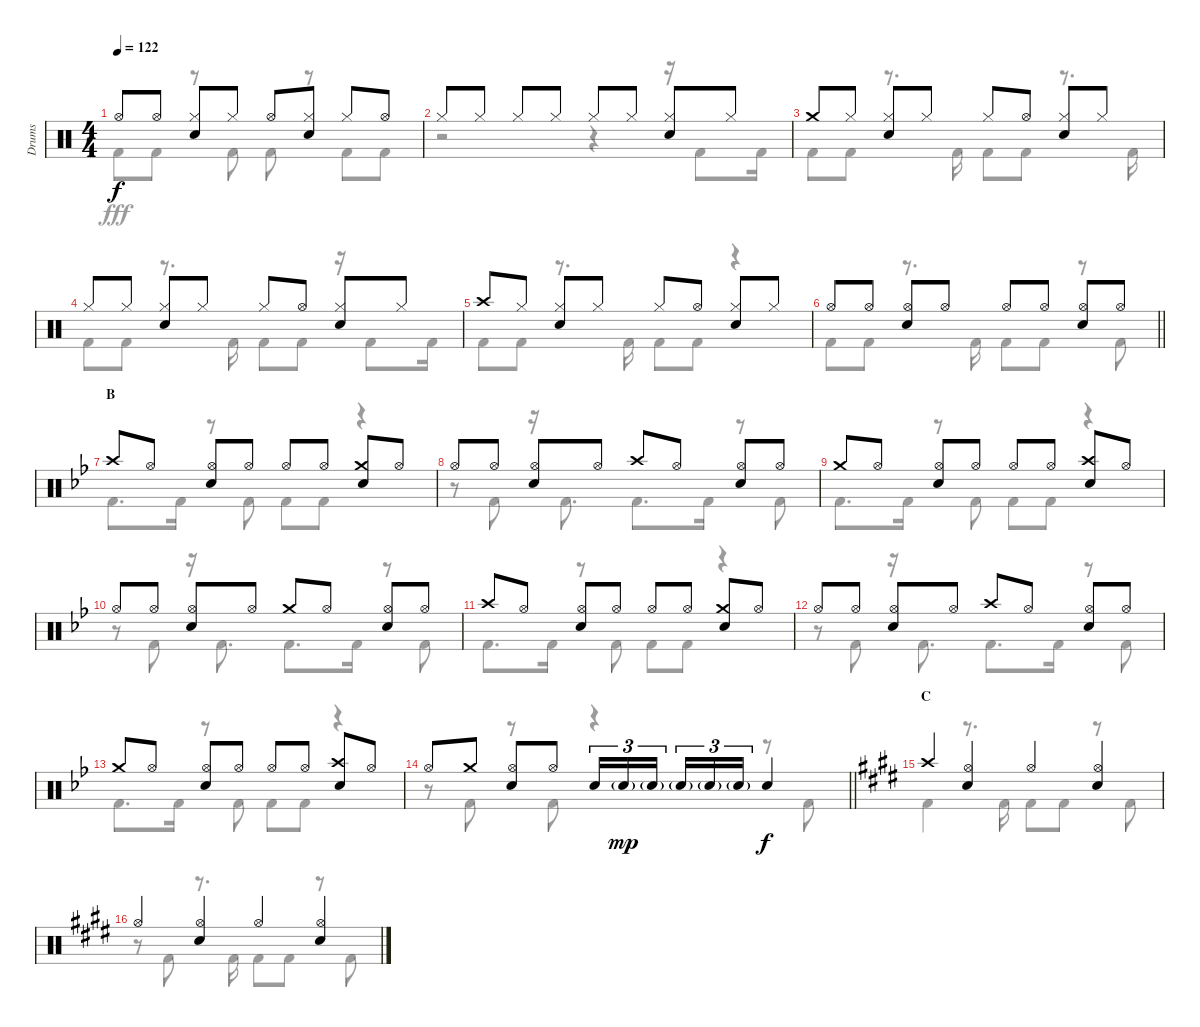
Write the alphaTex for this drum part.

\track ("Drums" "Drums") {instrument percussion}
\staff {score}
\articulation defaults
\voice
\ts (4 4)
\tempo 122
\clef neutral
\ks c "Hi-Hat (open)".8{dy f} "Hi-Hat (open)".8
("Hi-Hat (closed)" "Snare (hit) 2").8 "Hi-Hat (closed)".8 "Hi-Hat (open)".8 ("Hi-Hat (closed)" "Snare (hit) 2").8 "Hi-Hat (closed)".8 "Hi-Hat (open)".8 |
"Hi-Hat (closed)".8 "Hi-Hat (closed)".8 "Hi-Hat (closed)".8 "Hi-Hat (closed)".8 "Hi-Hat (closed)".8 "Hi-Hat (closed)".8 ("Hi-Hat (closed)" "Snare (hit) 2").8 "Hi-Hat (closed)".8 |
"Crash medium (hit)".8 "Hi-Hat (closed)".8 ("Hi-Hat (closed)" "Snare (hit) 2").8 "Hi-Hat (closed)".8 "Hi-Hat (closed)".8 "Hi-Hat (open)".8 ("Hi-Hat (closed)" "Snare (hit) 2").8 "Hi-Hat (closed)".8 |
"Hi-Hat (closed)".8 "Hi-Hat (closed)".8 ("Hi-Hat (closed)" "Snare (hit) 2").8 "Hi-Hat (closed)".8 "Hi-Hat (closed)".8 "Hi-Hat (open)".8 ("Hi-Hat (closed)" "Snare (hit) 2").8 "Hi-Hat (closed)".8 |
"Crash high (hit)".8 "Hi-Hat (closed)".8 ("Hi-Hat (closed)" "Snare (hit) 2").8 "Hi-Hat (closed)".8 "Hi-Hat (closed)".8 "Hi-Hat (open)".8 ("Hi-Hat (closed)" "Snare (hit) 2").8 "Hi-Hat (closed)".8 |
\barLineRight lightlight "Hi-Hat (open)".8 "Hi-Hat (open)".8
("Hi-Hat (open)" "Snare (hit) 2").8 "Hi-Hat (open)".8 "Hi-Hat (open)".8 "Hi-Hat (open)".8 ("Hi-Hat (open)" "Snare (hit) 2").8 "Hi-Hat (open)".8 |
\section ("" "B")
\ks bb "Crash high (hit)".8 "Hi-Hat (open)".8
("Hi-Hat (open)" "Snare (hit) 2").8 "Hi-Hat (open)".8 "Hi-Hat (open)".8 "Hi-Hat (open)".8 ("Crash medium (hit)" "Snare (hit) 2").8 "Hi-Hat (open)".8 |
"Hi-Hat (open)".8 "Hi-Hat (open)".8 ("Hi-Hat (open)" "Snare (hit) 2").8 "Hi-Hat (open)".8 "Crash high (hit)".8 "Hi-Hat (open)".8 ("Hi-Hat (open)" "Snare (hit) 2").8 "Hi-Hat (open)".8 |
"Crash medium (hit)".8 "Hi-Hat (open)".8 ("Hi-Hat (open)" "Snare (hit) 2").8 "Hi-Hat (open)".8 "Hi-Hat (open)".8 "Hi-Hat (open)".8 ("Crash high (hit)" "Snare (hit) 2").8 "Hi-Hat (open)".8 |
"Hi-Hat (open)".8 "Hi-Hat (open)".8 ("Hi-Hat (open)" "Snare (hit) 2").8 "Hi-Hat (open)".8 "Crash medium (hit)".8 "Hi-Hat (open)".8 ("Hi-Hat (open)" "Snare (hit) 2").8 "Hi-Hat (open)".8 |
"Crash high (hit)".8 "Hi-Hat (open)".8 ("Hi-Hat (open)" "Snare (hit) 2").8 "Hi-Hat (open)".8 "Hi-Hat (open)".8 "Hi-Hat (open)".8 ("Crash medium (hit)" "Snare (hit) 2").8 "Hi-Hat (open)".8 |
"Hi-Hat (open)".8 "Hi-Hat (open)".8 ("Hi-Hat (open)" "Snare (hit) 2").8 "Hi-Hat (open)".8 "Crash high (hit)".8 "Hi-Hat (open)".8 ("Hi-Hat (open)" "Snare (hit) 2").8 "Hi-Hat (open)".8 |
"Crash medium (hit)".8 "Hi-Hat (open)".8 ("Hi-Hat (open)" "Snare (hit) 2").8 "Hi-Hat (open)".8 "Hi-Hat (open)".8 "Hi-Hat (open)".8 ("Crash high (hit)" "Snare (hit) 2").8 "Hi-Hat (open)".8 |
\barLineRight lightlight "Hi-Hat (open)".8 "Crash medium (hit)".8
("Hi-Hat (open)" "Snare (hit) 2").8 "Hi-Hat (open)".8 "Snare (hit) 2".16{tu (3 2)} "Snare (hit) 2"{g}.16{tu (3 2) dy mp} "Snare (hit) 2"{g}.16{tu (3 2) beam splitsecondary} "Snare (hit) 2"{g}.16{tu (3 2)} "Snare (hit) 2"{g}.16{tu (3 2)} "Snare (hit) 2"{g}.16{tu (3 2)} "Snare (hit) 2".4{dy f} |
\section ("" "C")
\ks e "Crash high (hit)".4
("Hi-Hat (open)" "Snare (hit) 2").4 "Hi-Hat (open)".4 ("Hi-Hat (open)" "Snare (hit) 2").4 |
"Hi-Hat (open)".4 ("Hi-Hat (open)" "Snare (hit) 2").4 "Hi-Hat (open)".4 ("Hi-Hat (open)" "Snare (hit) 2").4
\voice
\clef neutral
\ottava regular
\simile none
\ks c "Kick (hit) 2".8{dy fff} "Kick (hit) 2".8
r.8 "Kick (hit) 2".8 "Kick (hit) 2".8 r.8 "Kick (hit) 2".8 "Kick (hit) 2".8 |
r.2 r.4 r.16 "Kick (hit) 2".8 "Kick (hit) 2".16 |
"Kick (hit) 2".8 "Kick (hit) 2".8 r.8{d} "Kick (hit) 2".16 "Kick (hit) 2".8 "Kick (hit) 2".8 r.8{d} "Kick (hit) 2".16 |
"Kick (hit) 2".8 "Kick (hit) 2".8 r.8{d} "Kick (hit) 2".16 "Kick (hit) 2".8 "Kick (hit) 2".8 r.16 "Kick (hit) 2".8 "Kick (hit) 2".16 |
"Kick (hit) 2".8 "Kick (hit) 2".8 r.8{d} "Kick (hit) 2".16 "Kick (hit) 2".8 "Kick (hit) 2".8 r.4 |
\barLineRight lightlight "Kick (hit) 2".8 "Kick (hit) 2".8
r.8{d} "Kick (hit) 2".16 "Kick (hit) 2".8 "Kick (hit) 2".8 r.8 "Kick (hit) 2".8 |
\ks bb "Kick (hit) 2".8{d} "Kick (hit) 2".16
r.8 "Kick (hit) 2".8 "Kick (hit) 2".8 "Kick (hit) 2".8 r.4 |
r.8 "Kick (hit) 2".8 r.16 "Kick (hit) 2".8{d} "Kick (hit) 2".8{d} "Kick (hit) 2".16 r.8 "Kick (hit) 2".8 |
"Kick (hit) 2".8{d} "Kick (hit) 2".16 r.8 "Kick (hit) 2".8 "Kick (hit) 2".8 "Kick (hit) 2".8 r.4 |
r.8 "Kick (hit) 2".8 r.16 "Kick (hit) 2".8{d} "Kick (hit) 2".8{d} "Kick (hit) 2".16 r.8 "Kick (hit) 2".8 |
"Kick (hit) 2".8{d} "Kick (hit) 2".16 r.8 "Kick (hit) 2".8 "Kick (hit) 2".8 "Kick (hit) 2".8 r.4 |
r.8 "Kick (hit) 2".8 r.16 "Kick (hit) 2".8{d} "Kick (hit) 2".8{d} "Kick (hit) 2".16 r.8 "Kick (hit) 2".8 |
"Kick (hit) 2".8{d} "Kick (hit) 2".16 r.8 "Kick (hit) 2".8 "Kick (hit) 2".8 "Kick (hit) 2".8 r.4 |
\barLineRight lightlight
r.8 "Kick (hit) 2".8 r.8 "Kick (hit) 2".8 r.4 r.8 "Kick (hit) 2".8 |
\ks e "Kick (hit) 2".4
r.8{d} "Kick (hit) 2".16 "Kick (hit) 2".8 "Kick (hit) 2".8 r.8 "Kick (hit) 2".8 |
r.8 "Kick (hit) 2".8 r.8{d} "Kick (hit) 2".16 "Kick (hit) 2".8 "Kick (hit) 2".8 r.8 "Kick (hit) 2".8
